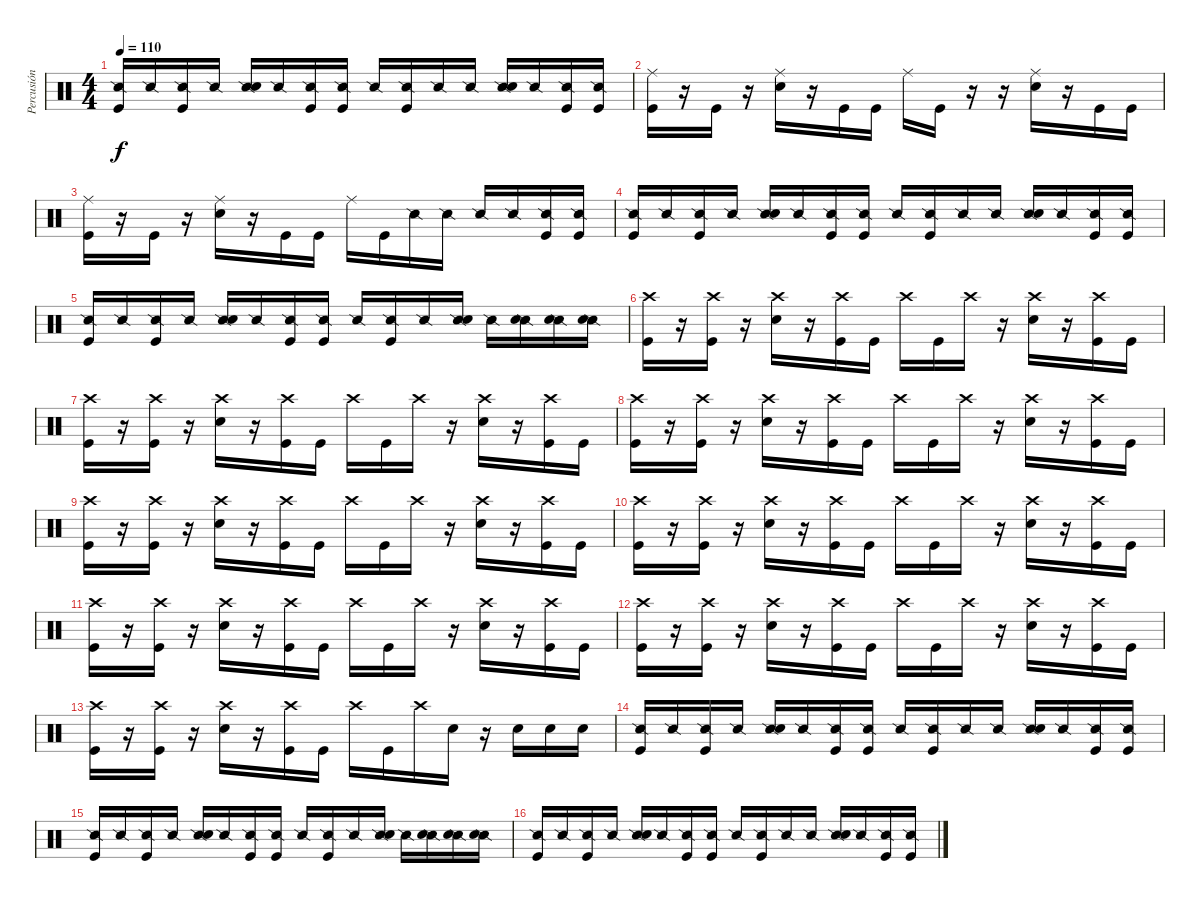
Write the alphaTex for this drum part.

\track ("Percusión" "Percusión") {instrument percussion}
\staff {score}
\articulation defaults
\ts (4 4)
\tempo 110
\clef neutral
\ks c
("Snare (side stick) 2" "Kick (hit)").16{dy f} "Snare (side stick) 2".16 ("Snare (side stick) 2" "Kick (hit)").16 "Snare (side stick) 2".16 ("Snare (side stick) 2" "Electric Snare (hit)").16 "Snare (side stick) 2".16 ("Snare (side stick) 2" "Kick (hit)").16 ("Snare (side stick) 2" "Kick (hit)").16 "Snare (side stick) 2".16 ("Snare (side stick) 2" "Kick (hit)").16 "Snare (side stick) 2".16 "Snare (side stick) 2".16 ("Snare (side stick) 2" "Electric Snare (hit)").16 "Snare (side stick) 2".16 ("Snare (side stick) 2" "Kick (hit)").16 ("Snare (side stick) 2" "Kick (hit)").16 |
("Ride (middle)" "Kick (hit)").16 r.16 "Kick (hit)".16 r.16 ("Ride (middle)" "Electric Snare (hit)").16 r.16 "Kick (hit)".16 "Kick (hit)".16 "Ride (middle)".16 "Kick (hit)".16 r.16 r.16 ("Ride (middle)" "Electric Snare (hit)").16 r.16 "Kick (hit)".16 "Kick (hit)".16 |
("Ride (middle)" "Kick (hit)").16 r.16 "Kick (hit)".16 r.16 ("Ride (middle)" "Electric Snare (hit)").16 r.16 "Kick (hit)".16 "Kick (hit)".16 "Ride (middle)".16 "Kick (hit)".16 "Snare (side stick) 2".16 "Snare (side stick) 2".16 "Snare (side stick) 2".16 "Snare (side stick) 2".16 ("Snare (side stick) 2" "Kick (hit)").16 ("Snare (side stick) 2" "Kick (hit)").16 |
("Snare (side stick) 2" "Kick (hit)").16 "Snare (side stick) 2".16 ("Snare (side stick) 2" "Kick (hit)").16 "Snare (side stick) 2".16 ("Snare (side stick) 2" "Electric Snare (hit)").16 "Snare (side stick) 2".16 ("Snare (side stick) 2" "Kick (hit)").16 ("Snare (side stick) 2" "Kick (hit)").16 "Snare (side stick) 2".16 ("Snare (side stick) 2" "Kick (hit)").16 "Snare (side stick) 2".16 "Snare (side stick) 2".16 ("Snare (side stick) 2" "Electric Snare (hit)").16 "Snare (side stick) 2".16 ("Snare (side stick) 2" "Kick (hit)").16 ("Snare (side stick) 2" "Kick (hit)").16 |
("Snare (side stick) 2" "Kick (hit)").16 "Snare (side stick) 2".16 ("Snare (side stick) 2" "Kick (hit)").16 "Snare (side stick) 2".16 ("Snare (side stick) 2" "Electric Snare (hit)").16 "Snare (side stick) 2".16 ("Snare (side stick) 2" "Kick (hit)").16 ("Snare (side stick) 2" "Kick (hit)").16 "Snare (side stick) 2".16 ("Snare (side stick) 2" "Kick (hit)").16 "Snare (side stick) 2".16 ("Snare (side stick) 2" "Electric Snare (hit)").16 "Snare (side stick) 2".16 ("Snare (side stick) 2" "Electric Snare (hit)").16 ("Snare (side stick) 2" "Electric Snare (hit)").16 ("Snare (side stick) 2" "Electric Snare (hit)").16 |
("Crash high (hit)" "Kick (hit)").16 r.16 ("Crash high (hit)" "Kick (hit)").16 r.16 ("Crash high (hit)" "Electric Snare (hit)").16 r.16 ("Crash high (hit)" "Kick (hit)").16 "Kick (hit)".16 "Crash high (hit)".16 "Kick (hit)".16 "Crash high (hit)".16 r.16 ("Crash high (hit)" "Electric Snare (hit)").16 r.16 ("Crash high (hit)" "Kick (hit)").16 "Kick (hit)".16 |
("Crash high (hit)" "Kick (hit)").16 r.16 ("Crash high (hit)" "Kick (hit)").16 r.16 ("Crash high (hit)" "Electric Snare (hit)").16 r.16 ("Crash high (hit)" "Kick (hit)").16 "Kick (hit)".16 "Crash high (hit)".16 "Kick (hit)".16 "Crash high (hit)".16 r.16 ("Crash high (hit)" "Electric Snare (hit)").16 r.16 ("Crash high (hit)" "Kick (hit)").16 "Kick (hit)".16 |
("Crash high (hit)" "Kick (hit)").16 r.16 ("Crash high (hit)" "Kick (hit)").16 r.16 ("Crash high (hit)" "Electric Snare (hit)").16 r.16 ("Crash high (hit)" "Kick (hit)").16 "Kick (hit)".16 "Crash high (hit)".16 "Kick (hit)".16 "Crash high (hit)".16 r.16 ("Crash high (hit)" "Electric Snare (hit)").16 r.16 ("Crash high (hit)" "Kick (hit)").16 "Kick (hit)".16 |
("Crash high (hit)" "Kick (hit)").16 r.16 ("Crash high (hit)" "Kick (hit)").16 r.16 ("Crash high (hit)" "Electric Snare (hit)").16 r.16 ("Crash high (hit)" "Kick (hit)").16 "Kick (hit)".16 "Crash high (hit)".16 "Kick (hit)".16 "Crash high (hit)".16 r.16 ("Crash high (hit)" "Electric Snare (hit)").16 r.16 ("Crash high (hit)" "Kick (hit)").16 "Kick (hit)".16 |
("Crash high (hit)" "Kick (hit)").16 r.16 ("Crash high (hit)" "Kick (hit)").16 r.16 ("Crash high (hit)" "Electric Snare (hit)").16 r.16 ("Crash high (hit)" "Kick (hit)").16 "Kick (hit)".16 "Crash high (hit)".16 "Kick (hit)".16 "Crash high (hit)".16 r.16 ("Crash high (hit)" "Electric Snare (hit)").16 r.16 ("Crash high (hit)" "Kick (hit)").16 "Kick (hit)".16 |
("Crash high (hit)" "Kick (hit)").16 r.16 ("Crash high (hit)" "Kick (hit)").16 r.16 ("Crash high (hit)" "Electric Snare (hit)").16 r.16 ("Crash high (hit)" "Kick (hit)").16 "Kick (hit)".16 "Crash high (hit)".16 "Kick (hit)".16 "Crash high (hit)".16 r.16 ("Crash high (hit)" "Electric Snare (hit)").16 r.16 ("Crash high (hit)" "Kick (hit)").16 "Kick (hit)".16 |
("Crash high (hit)" "Kick (hit)").16 r.16 ("Crash high (hit)" "Kick (hit)").16 r.16 ("Crash high (hit)" "Electric Snare (hit)").16 r.16 ("Crash high (hit)" "Kick (hit)").16 "Kick (hit)".16 "Crash high (hit)".16 "Kick (hit)".16 "Crash high (hit)".16 r.16 ("Crash high (hit)" "Electric Snare (hit)").16 r.16 ("Crash high (hit)" "Kick (hit)").16 "Kick (hit)".16 |
("Crash high (hit)" "Kick (hit)").16 r.16 ("Crash high (hit)" "Kick (hit)").16 r.16 ("Crash high (hit)" "Electric Snare (hit)").16 r.16 ("Crash high (hit)" "Kick (hit)").16 "Kick (hit)".16 "Crash high (hit)".16 "Kick (hit)".16 "Crash high (hit)".16 "Electric Snare (hit)".16 r.16 "Electric Snare (hit)".16 "Electric Snare (hit)".16 "Electric Snare (hit)".16 |
("Snare (side stick) 2" "Kick (hit)").16 "Snare (side stick) 2".16 ("Snare (side stick) 2" "Kick (hit)").16 "Snare (side stick) 2".16 ("Snare (side stick) 2" "Electric Snare (hit)").16 "Snare (side stick) 2".16 ("Snare (side stick) 2" "Kick (hit)").16 ("Snare (side stick) 2" "Kick (hit)").16 "Snare (side stick) 2".16 ("Snare (side stick) 2" "Kick (hit)").16 "Snare (side stick) 2".16 "Snare (side stick) 2".16 ("Snare (side stick) 2" "Electric Snare (hit)").16 "Snare (side stick) 2".16 ("Snare (side stick) 2" "Kick (hit)").16 ("Snare (side stick) 2" "Kick (hit)").16 |
("Snare (side stick) 2" "Kick (hit)").16 "Snare (side stick) 2".16 ("Snare (side stick) 2" "Kick (hit)").16 "Snare (side stick) 2".16 ("Snare (side stick) 2" "Electric Snare (hit)").16 "Snare (side stick) 2".16 ("Snare (side stick) 2" "Kick (hit)").16 ("Snare (side stick) 2" "Kick (hit)").16 "Snare (side stick) 2".16 ("Snare (side stick) 2" "Kick (hit)").16 "Snare (side stick) 2".16 ("Snare (side stick) 2" "Electric Snare (hit)").16 "Snare (side stick) 2".16 ("Snare (side stick) 2" "Electric Snare (hit)").16 ("Snare (side stick) 2" "Electric Snare (hit)").16 ("Snare (side stick) 2" "Electric Snare (hit)").16 |
("Snare (side stick) 2" "Kick (hit)").16 "Snare (side stick) 2".16 ("Snare (side stick) 2" "Kick (hit)").16 "Snare (side stick) 2".16 ("Snare (side stick) 2" "Electric Snare (hit)").16 "Snare (side stick) 2".16 ("Snare (side stick) 2" "Kick (hit)").16 ("Snare (side stick) 2" "Kick (hit)").16 "Snare (side stick) 2".16 ("Snare (side stick) 2" "Kick (hit)").16 "Snare (side stick) 2".16 "Snare (side stick) 2".16 ("Snare (side stick) 2" "Electric Snare (hit)").16 "Snare (side stick) 2".16 ("Snare (side stick) 2" "Kick (hit)").16 ("Snare (side stick) 2" "Kick (hit)").16
